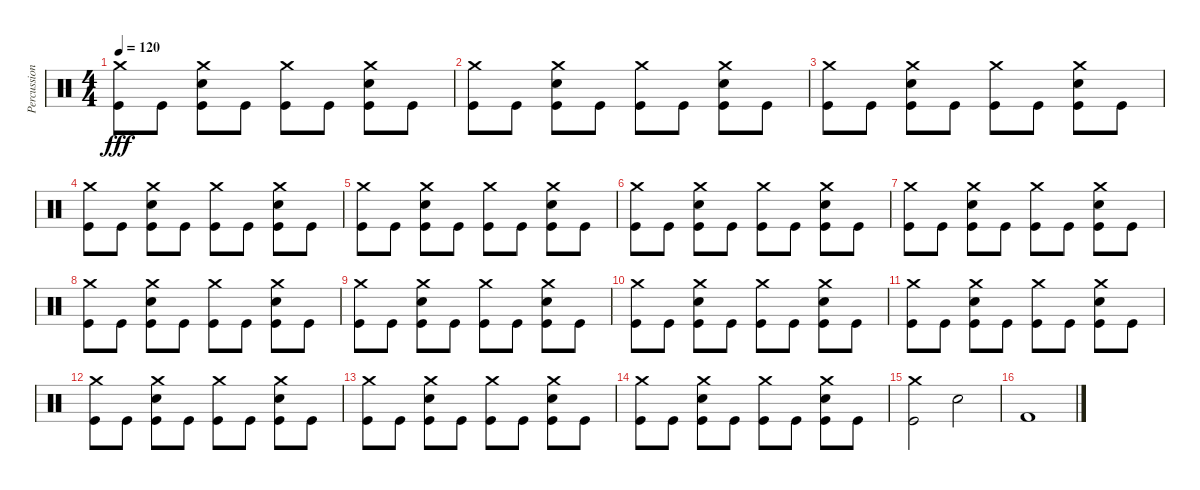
\track ("Percussion" "Percussion") {instrument percussion}
\staff {score}
\articulation defaults
\ts (4 4)
\tempo 120
\clef neutral
\ks c
("Crash medium (hit)" "Kick (hit)").8{dy fff} "Kick (hit)".8 ("Crash medium (hit)" "Electric Snare (hit)" "Kick (hit)").8 "Kick (hit)".8 ("Crash medium (hit)" "Kick (hit)").8 "Kick (hit)".8 ("Crash medium (hit)" "Electric Snare (hit)" "Kick (hit)").8 "Kick (hit)".8 |
("Crash medium (hit)" "Kick (hit)").8 "Kick (hit)".8 ("Crash medium (hit)" "Electric Snare (hit)" "Kick (hit)").8 "Kick (hit)".8 ("Crash medium (hit)" "Kick (hit)").8 "Kick (hit)".8 ("Crash medium (hit)" "Electric Snare (hit)" "Kick (hit)").8 "Kick (hit)".8 |
("Crash medium (hit)" "Kick (hit)").8 "Kick (hit)".8 ("Crash medium (hit)" "Electric Snare (hit)" "Kick (hit)").8 "Kick (hit)".8 ("Crash medium (hit)" "Kick (hit)").8 "Kick (hit)".8 ("Crash medium (hit)" "Electric Snare (hit)" "Kick (hit)").8 "Kick (hit)".8 |
("Crash medium (hit)" "Kick (hit)").8 "Kick (hit)".8 ("Crash medium (hit)" "Electric Snare (hit)" "Kick (hit)").8 "Kick (hit)".8 ("Crash medium (hit)" "Kick (hit)").8 "Kick (hit)".8 ("Crash medium (hit)" "Electric Snare (hit)" "Kick (hit)").8 "Kick (hit)".8 |
("Crash medium (hit)" "Kick (hit)").8 "Kick (hit)".8 ("Crash medium (hit)" "Electric Snare (hit)" "Kick (hit)").8 "Kick (hit)".8 ("Crash medium (hit)" "Kick (hit)").8 "Kick (hit)".8 ("Crash medium (hit)" "Electric Snare (hit)" "Kick (hit)").8 "Kick (hit)".8 |
("Crash medium (hit)" "Kick (hit)").8 "Kick (hit)".8 ("Crash medium (hit)" "Electric Snare (hit)" "Kick (hit)").8 "Kick (hit)".8 ("Crash medium (hit)" "Kick (hit)").8 "Kick (hit)".8 ("Crash medium (hit)" "Electric Snare (hit)" "Kick (hit)").8 "Kick (hit)".8 |
("Crash medium (hit)" "Kick (hit)").8 "Kick (hit)".8 ("Crash medium (hit)" "Electric Snare (hit)" "Kick (hit)").8 "Kick (hit)".8 ("Crash medium (hit)" "Kick (hit)").8 "Kick (hit)".8 ("Crash medium (hit)" "Electric Snare (hit)" "Kick (hit)").8 "Kick (hit)".8 |
("Crash medium (hit)" "Kick (hit)").8 "Kick (hit)".8 ("Crash medium (hit)" "Electric Snare (hit)" "Kick (hit)").8 "Kick (hit)".8 ("Crash medium (hit)" "Kick (hit)").8 "Kick (hit)".8 ("Crash medium (hit)" "Electric Snare (hit)" "Kick (hit)").8 "Kick (hit)".8 |
("Crash medium (hit)" "Kick (hit)").8 "Kick (hit)".8 ("Crash medium (hit)" "Electric Snare (hit)" "Kick (hit)").8 "Kick (hit)".8 ("Crash medium (hit)" "Kick (hit)").8 "Kick (hit)".8 ("Crash medium (hit)" "Electric Snare (hit)" "Kick (hit)").8 "Kick (hit)".8 |
("Crash medium (hit)" "Kick (hit)").8 "Kick (hit)".8 ("Crash medium (hit)" "Electric Snare (hit)" "Kick (hit)").8 "Kick (hit)".8 ("Crash medium (hit)" "Kick (hit)").8 "Kick (hit)".8 ("Crash medium (hit)" "Electric Snare (hit)" "Kick (hit)").8 "Kick (hit)".8 |
("Crash medium (hit)" "Kick (hit)").8 "Kick (hit)".8 ("Crash medium (hit)" "Electric Snare (hit)" "Kick (hit)").8 "Kick (hit)".8 ("Crash medium (hit)" "Kick (hit)").8 "Kick (hit)".8 ("Crash medium (hit)" "Electric Snare (hit)" "Kick (hit)").8 "Kick (hit)".8 |
("Crash medium (hit)" "Kick (hit)").8 "Kick (hit)".8 ("Crash medium (hit)" "Electric Snare (hit)" "Kick (hit)").8 "Kick (hit)".8 ("Crash medium (hit)" "Kick (hit)").8 "Kick (hit)".8 ("Crash medium (hit)" "Electric Snare (hit)" "Kick (hit)").8 "Kick (hit)".8 |
("Crash medium (hit)" "Kick (hit)").8 "Kick (hit)".8 ("Crash medium (hit)" "Electric Snare (hit)" "Kick (hit)").8 "Kick (hit)".8 ("Crash medium (hit)" "Kick (hit)").8 "Kick (hit)".8 ("Crash medium (hit)" "Electric Snare (hit)" "Kick (hit)").8 "Kick (hit)".8 |
("Crash medium (hit)" "Kick (hit)").8 "Kick (hit)".8 ("Crash medium (hit)" "Electric Snare (hit)" "Kick (hit)").8 "Kick (hit)".8 ("Crash medium (hit)" "Kick (hit)").8 "Kick (hit)".8 ("Crash medium (hit)" "Electric Snare (hit)" "Kick (hit)").8 "Kick (hit)".8 |
("Crash medium (hit)" "Kick (hit)").2 "Electric Snare (hit)".2 |
"Kick (hit) 2".1
